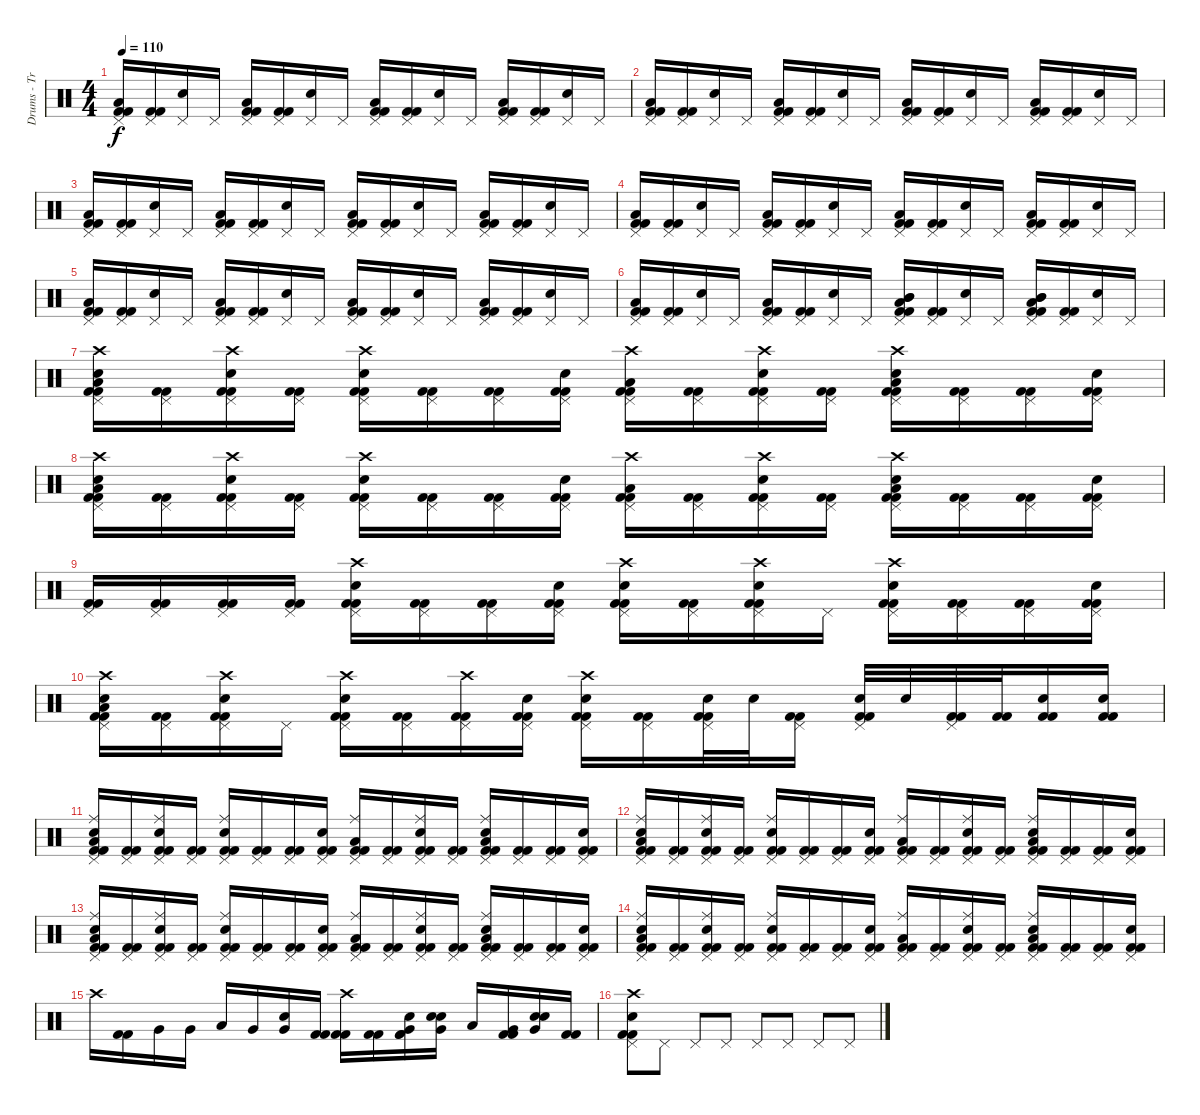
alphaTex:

\track ("Drums - Travis Barker" "Drums - Tr") {instrument percussion}
\staff {score}
\articulation defaults
\ts (4 4)
\tempo 110
\clef neutral
\ks c
("Pedal Hi-Hat (hit)" "Low Tom (hit)" "Kick (hit) 2" "Kick (hit) 2").16{dy f} ("Pedal Hi-Hat (hit)" "Kick (hit) 2" "Kick (hit) 2").16 ("Pedal Hi-Hat (hit)" "Electric Snare (hit)").16 "Pedal Hi-Hat (hit)".16 ("Pedal Hi-Hat (hit)" "Low Tom (hit)" "Kick (hit) 2" "Kick (hit) 2").16 ("Pedal Hi-Hat (hit)" "Kick (hit) 2" "Kick (hit) 2").16 ("Pedal Hi-Hat (hit)" "Electric Snare (hit)").16 "Pedal Hi-Hat (hit)".16 ("Pedal Hi-Hat (hit)" "Low Tom (hit)" "Kick (hit) 2" "Kick (hit) 2").16 ("Pedal Hi-Hat (hit)" "Kick (hit) 2" "Kick (hit) 2").16 ("Pedal Hi-Hat (hit)" "Electric Snare (hit)").16 "Pedal Hi-Hat (hit)".16 ("Pedal Hi-Hat (hit)" "Low Tom (hit)" "Kick (hit) 2" "Kick (hit) 2").16 ("Pedal Hi-Hat (hit)" "Kick (hit) 2" "Kick (hit) 2").16 ("Pedal Hi-Hat (hit)" "Electric Snare (hit)").16 "Pedal Hi-Hat (hit)".16 |
("Pedal Hi-Hat (hit)" "Low Tom (hit)" "Kick (hit) 2" "Kick (hit) 2").16 ("Pedal Hi-Hat (hit)" "Kick (hit) 2" "Kick (hit) 2").16 ("Pedal Hi-Hat (hit)" "Electric Snare (hit)").16 "Pedal Hi-Hat (hit)".16 ("Pedal Hi-Hat (hit)" "Low Tom (hit)" "Kick (hit) 2" "Kick (hit) 2").16 ("Pedal Hi-Hat (hit)" "Kick (hit) 2" "Kick (hit) 2").16 ("Pedal Hi-Hat (hit)" "Electric Snare (hit)").16 "Pedal Hi-Hat (hit)".16 ("Pedal Hi-Hat (hit)" "Low Tom (hit)" "Kick (hit) 2" "Kick (hit) 2").16 ("Pedal Hi-Hat (hit)" "Kick (hit) 2" "Kick (hit) 2").16 ("Pedal Hi-Hat (hit)" "Electric Snare (hit)").16 "Pedal Hi-Hat (hit)".16 ("Pedal Hi-Hat (hit)" "Low Tom (hit)" "Kick (hit) 2" "Kick (hit) 2").16 ("Pedal Hi-Hat (hit)" "Kick (hit) 2" "Kick (hit) 2").16 ("Pedal Hi-Hat (hit)" "Electric Snare (hit)").16 "Pedal Hi-Hat (hit)".16 |
("Pedal Hi-Hat (hit)" "Low Tom (hit)" "Kick (hit) 2" "Kick (hit) 2").16 ("Pedal Hi-Hat (hit)" "Kick (hit) 2" "Kick (hit) 2").16 ("Pedal Hi-Hat (hit)" "Electric Snare (hit)").16 "Pedal Hi-Hat (hit)".16 ("Pedal Hi-Hat (hit)" "Low Tom (hit)" "Kick (hit) 2" "Kick (hit) 2").16 ("Pedal Hi-Hat (hit)" "Kick (hit) 2" "Kick (hit) 2").16 ("Pedal Hi-Hat (hit)" "Electric Snare (hit)").16 "Pedal Hi-Hat (hit)".16 ("Pedal Hi-Hat (hit)" "Low Tom (hit)" "Kick (hit) 2" "Kick (hit) 2").16 ("Pedal Hi-Hat (hit)" "Kick (hit) 2" "Kick (hit) 2").16 ("Pedal Hi-Hat (hit)" "Electric Snare (hit)").16 "Pedal Hi-Hat (hit)".16 ("Pedal Hi-Hat (hit)" "Low Tom (hit)" "Kick (hit) 2" "Kick (hit) 2").16 ("Pedal Hi-Hat (hit)" "Kick (hit) 2" "Kick (hit) 2").16 ("Pedal Hi-Hat (hit)" "Electric Snare (hit)").16 "Pedal Hi-Hat (hit)".16 |
("Pedal Hi-Hat (hit)" "Low Tom (hit)" "Kick (hit) 2" "Kick (hit) 2").16 ("Pedal Hi-Hat (hit)" "Kick (hit) 2" "Kick (hit) 2").16 ("Pedal Hi-Hat (hit)" "Electric Snare (hit)").16 "Pedal Hi-Hat (hit)".16 ("Pedal Hi-Hat (hit)" "Low Tom (hit)" "Kick (hit) 2" "Kick (hit) 2").16 ("Pedal Hi-Hat (hit)" "Kick (hit) 2" "Kick (hit) 2").16 ("Pedal Hi-Hat (hit)" "Electric Snare (hit)").16 "Pedal Hi-Hat (hit)".16 ("Pedal Hi-Hat (hit)" "Low Tom (hit)" "Kick (hit) 2" "Kick (hit) 2").16 ("Pedal Hi-Hat (hit)" "Kick (hit) 2" "Kick (hit) 2").16 ("Pedal Hi-Hat (hit)" "Electric Snare (hit)").16 "Pedal Hi-Hat (hit)".16 ("Pedal Hi-Hat (hit)" "Low Tom (hit)" "Kick (hit) 2" "Kick (hit) 2").16 ("Pedal Hi-Hat (hit)" "Kick (hit) 2" "Kick (hit) 2").16 ("Pedal Hi-Hat (hit)" "Electric Snare (hit)").16 "Pedal Hi-Hat (hit)".16 |
("Pedal Hi-Hat (hit)" "Low Tom (hit)" "Kick (hit) 2" "Kick (hit) 2").16 ("Pedal Hi-Hat (hit)" "Kick (hit) 2" "Kick (hit) 2").16 ("Pedal Hi-Hat (hit)" "Electric Snare (hit)").16 "Pedal Hi-Hat (hit)".16 ("Pedal Hi-Hat (hit)" "Low Tom (hit)" "Kick (hit) 2" "Kick (hit) 2").16 ("Pedal Hi-Hat (hit)" "Kick (hit) 2" "Kick (hit) 2").16 ("Pedal Hi-Hat (hit)" "Electric Snare (hit)").16 "Pedal Hi-Hat (hit)".16 ("Pedal Hi-Hat (hit)" "Low Tom (hit)" "Kick (hit) 2" "Kick (hit) 2").16 ("Pedal Hi-Hat (hit)" "Kick (hit) 2" "Kick (hit) 2").16 ("Pedal Hi-Hat (hit)" "Electric Snare (hit)").16 "Pedal Hi-Hat (hit)".16 ("Pedal Hi-Hat (hit)" "Low Tom (hit)" "Kick (hit) 2" "Kick (hit) 2").16 ("Pedal Hi-Hat (hit)" "Kick (hit) 2" "Kick (hit) 2").16 ("Pedal Hi-Hat (hit)" "Electric Snare (hit)").16 "Pedal Hi-Hat (hit)".16 |
("Pedal Hi-Hat (hit)" "Low Tom (hit)" "Kick (hit) 2" "Kick (hit) 2").16 ("Pedal Hi-Hat (hit)" "Kick (hit) 2" "Kick (hit) 2").16 ("Pedal Hi-Hat (hit)" "Electric Snare (hit)").16 "Pedal Hi-Hat (hit)".16 ("Pedal Hi-Hat (hit)" "Low Tom (hit)" "Kick (hit) 2" "Kick (hit) 2").16 ("Pedal Hi-Hat (hit)" "Kick (hit) 2" "Kick (hit) 2").16 ("Pedal Hi-Hat (hit)" "Electric Snare (hit)").16 "Pedal Hi-Hat (hit)".16 ("Pedal Hi-Hat (hit)" "Mid Tom (hit)" "Low Tom (hit)" "Mid Tom (hit)" "Kick (hit) 2" "Kick (hit) 2").16 ("Pedal Hi-Hat (hit)" "Kick (hit) 2" "Kick (hit) 2").16 ("Pedal Hi-Hat (hit)" "Electric Snare (hit)").16 "Pedal Hi-Hat (hit)".16 ("Pedal Hi-Hat (hit)" "Mid Tom (hit)" "Low Tom (hit)" "Mid Tom (hit)" "Kick (hit) 2" "Kick (hit) 2").16 ("Pedal Hi-Hat (hit)" "Kick (hit) 2" "Kick (hit) 2").16 ("Pedal Hi-Hat (hit)" "Electric Snare (hit)").16 "Pedal Hi-Hat (hit)".16 |
("Pedal Hi-Hat (hit)" "Crash high (hit)" "Low Tom (hit)" "Electric Snare (hit)" "Kick (hit) 2" "Kick (hit) 2").16 ("Pedal Hi-Hat (hit)" "Kick (hit) 2" "Kick (hit) 2").16 ("Pedal Hi-Hat (hit)" "Crash high (hit)" "Electric Snare (hit)" "Kick (hit) 2" "Kick (hit) 2").16 ("Pedal Hi-Hat (hit)" "Kick (hit) 2" "Kick (hit) 2").16 ("Pedal Hi-Hat (hit)" "Crash high (hit)" "Electric Snare (hit)" "Kick (hit) 2" "Kick (hit) 2").16 ("Pedal Hi-Hat (hit)" "Kick (hit) 2" "Kick (hit) 2").16 ("Pedal Hi-Hat (hit)" "Kick (hit) 2" "Kick (hit) 2").16 ("Pedal Hi-Hat (hit)" "Electric Snare (hit)" "Kick (hit) 2" "Kick (hit) 2").16 ("Pedal Hi-Hat (hit)" "Crash high (hit)" "Low Tom (hit)" "Kick (hit) 2" "Kick (hit) 2").16 ("Pedal Hi-Hat (hit)" "Kick (hit) 2" "Kick (hit) 2").16 ("Pedal Hi-Hat (hit)" "Crash high (hit)" "Electric Snare (hit)" "Kick (hit) 2" "Kick (hit) 2").16 ("Pedal Hi-Hat (hit)" "Kick (hit) 2" "Kick (hit) 2").16 ("Pedal Hi-Hat (hit)" "Crash high (hit)" "Low Tom (hit)" "Electric Snare (hit)" "Kick (hit) 2" "Kick (hit) 2").16 ("Pedal Hi-Hat (hit)" "Kick (hit) 2" "Kick (hit) 2").16 ("Pedal Hi-Hat (hit)" "Kick (hit) 2" "Kick (hit) 2").16 ("Pedal Hi-Hat (hit)" "Electric Snare (hit)" "Kick (hit) 2" "Kick (hit) 2").16 |
("Pedal Hi-Hat (hit)" "Crash high (hit)" "Low Tom (hit)" "Electric Snare (hit)" "Kick (hit) 2" "Kick (hit) 2").16 ("Pedal Hi-Hat (hit)" "Kick (hit) 2" "Kick (hit) 2").16 ("Pedal Hi-Hat (hit)" "Crash high (hit)" "Electric Snare (hit)" "Kick (hit) 2" "Kick (hit) 2").16 ("Pedal Hi-Hat (hit)" "Kick (hit) 2" "Kick (hit) 2").16 ("Pedal Hi-Hat (hit)" "Crash high (hit)" "Electric Snare (hit)" "Kick (hit) 2" "Kick (hit) 2").16 ("Pedal Hi-Hat (hit)" "Kick (hit) 2" "Kick (hit) 2").16 ("Pedal Hi-Hat (hit)" "Kick (hit) 2" "Kick (hit) 2").16 ("Pedal Hi-Hat (hit)" "Electric Snare (hit)" "Kick (hit) 2" "Kick (hit) 2").16 ("Pedal Hi-Hat (hit)" "Crash high (hit)" "Low Tom (hit)" "Kick (hit) 2" "Kick (hit) 2").16 ("Pedal Hi-Hat (hit)" "Kick (hit) 2" "Kick (hit) 2").16 ("Pedal Hi-Hat (hit)" "Crash high (hit)" "Electric Snare (hit)" "Kick (hit) 2" "Kick (hit) 2").16 ("Pedal Hi-Hat (hit)" "Kick (hit) 2" "Kick (hit) 2").16 ("Pedal Hi-Hat (hit)" "Crash high (hit)" "Low Tom (hit)" "Electric Snare (hit)" "Kick (hit) 2" "Kick (hit) 2").16 ("Pedal Hi-Hat (hit)" "Kick (hit) 2" "Kick (hit) 2").16 ("Pedal Hi-Hat (hit)" "Kick (hit) 2" "Kick (hit) 2").16 ("Pedal Hi-Hat (hit)" "Electric Snare (hit)" "Kick (hit) 2" "Kick (hit) 2").16 |
("Pedal Hi-Hat (hit)" "Kick (hit) 2" "Kick (hit) 2").16 ("Pedal Hi-Hat (hit)" "Kick (hit) 2" "Kick (hit) 2").16 ("Pedal Hi-Hat (hit)" "Kick (hit) 2" "Kick (hit) 2").16 ("Pedal Hi-Hat (hit)" "Kick (hit) 2" "Kick (hit) 2").16 ("Pedal Hi-Hat (hit)" "Crash high (hit)" "Electric Snare (hit)" "Kick (hit) 2" "Kick (hit) 2").16 ("Pedal Hi-Hat (hit)" "Kick (hit) 2" "Kick (hit) 2").16 ("Pedal Hi-Hat (hit)" "Kick (hit) 2" "Kick (hit) 2").16 ("Pedal Hi-Hat (hit)" "Electric Snare (hit)" "Kick (hit) 2" "Kick (hit) 2").16 ("Pedal Hi-Hat (hit)" "Crash high (hit)" "Electric Snare (hit)" "Kick (hit) 2" "Kick (hit) 2").16 ("Pedal Hi-Hat (hit)" "Kick (hit) 2" "Kick (hit) 2").16 ("Pedal Hi-Hat (hit)" "Crash high (hit)" "Electric Snare (hit)" "Kick (hit) 2" "Kick (hit) 2").16 "Pedal Hi-Hat (hit)".16 ("Pedal Hi-Hat (hit)" "Crash high (hit)" "Electric Snare (hit)" "Kick (hit) 2" "Kick (hit) 2").16 ("Pedal Hi-Hat (hit)" "Kick (hit) 2" "Kick (hit) 2").16 ("Pedal Hi-Hat (hit)" "Kick (hit) 2" "Kick (hit) 2").16 ("Pedal Hi-Hat (hit)" "Electric Snare (hit)" "Kick (hit) 2" "Kick (hit) 2").16 |
("Pedal Hi-Hat (hit)" "Crash high (hit)" "Low Tom (hit)" "Electric Snare (hit)" "Kick (hit) 2" "Kick (hit) 2").16 ("Pedal Hi-Hat (hit)" "Kick (hit) 2" "Kick (hit) 2").16 ("Pedal Hi-Hat (hit)" "Crash high (hit)" "Electric Snare (hit)" "Kick (hit) 2" "Kick (hit) 2").16 "Pedal Hi-Hat (hit)".16 ("Pedal Hi-Hat (hit)" "Crash high (hit)" "Electric Snare (hit)" "Kick (hit) 2" "Kick (hit) 2").16 ("Pedal Hi-Hat (hit)" "Kick (hit) 2" "Kick (hit) 2").16 ("Pedal Hi-Hat (hit)" "Crash high (hit)" "Kick (hit) 2" "Kick (hit) 2").16 ("Pedal Hi-Hat (hit)" "Electric Snare (hit)" "Kick (hit) 2" "Kick (hit) 2").16 ("Pedal Hi-Hat (hit)" "Crash high (hit)" "Electric Snare (hit)" "Kick (hit) 2" "Kick (hit) 2").16 ("Pedal Hi-Hat (hit)" "Kick (hit) 2" "Kick (hit) 2").16 ("Pedal Hi-Hat (hit)" "Electric Snare (hit)" "Kick (hit) 2" "Kick (hit) 2").32 "Electric Snare (hit)".32 ("Pedal Hi-Hat (hit)" "Kick (hit) 2" "Kick (hit) 2").16 ("Pedal Hi-Hat (hit)" "Electric Snare (hit)" "Kick (hit) 2" "Kick (hit) 2").32 "Electric Snare (hit)".32 ("Pedal Hi-Hat (hit)" "Kick (hit) 2" "Kick (hit) 2").32 ("Kick (hit) 2" "Kick (hit) 2").32 ("Electric Snare (hit)" "Kick (hit) 2" "Kick (hit) 2").16 ("Electric Snare (hit)" "Kick (hit) 2" "Kick (hit) 2").16 |
("Pedal Hi-Hat (hit)" "Ride (middle)" "Low Tom (hit)" "Electric Snare (hit)" "Kick (hit) 2" "Kick (hit) 2").16 ("Pedal Hi-Hat (hit)" "Kick (hit) 2" "Kick (hit) 2").16 ("Pedal Hi-Hat (hit)" "Ride (middle)" "Electric Snare (hit)" "Kick (hit) 2" "Kick (hit) 2").16 ("Pedal Hi-Hat (hit)" "Kick (hit) 2" "Kick (hit) 2").16 ("Pedal Hi-Hat (hit)" "Ride (middle)" "Electric Snare (hit)" "Kick (hit) 2" "Kick (hit) 2").16 ("Pedal Hi-Hat (hit)" "Kick (hit) 2" "Kick (hit) 2").16 ("Pedal Hi-Hat (hit)" "Kick (hit) 2" "Kick (hit) 2").16 ("Pedal Hi-Hat (hit)" "Electric Snare (hit)" "Kick (hit) 2" "Kick (hit) 2").16 ("Pedal Hi-Hat (hit)" "Ride (middle)" "Low Tom (hit)" "Kick (hit) 2" "Kick (hit) 2").16 ("Pedal Hi-Hat (hit)" "Kick (hit) 2" "Kick (hit) 2").16 ("Pedal Hi-Hat (hit)" "Ride (middle)" "Electric Snare (hit)" "Kick (hit) 2" "Kick (hit) 2").16 ("Pedal Hi-Hat (hit)" "Kick (hit) 2" "Kick (hit) 2").16 ("Pedal Hi-Hat (hit)" "Ride (middle)" "Low Tom (hit)" "Electric Snare (hit)" "Kick (hit) 2" "Kick (hit) 2").16 ("Pedal Hi-Hat (hit)" "Kick (hit) 2" "Kick (hit) 2").16 ("Pedal Hi-Hat (hit)" "Kick (hit) 2" "Kick (hit) 2").16 ("Pedal Hi-Hat (hit)" "Electric Snare (hit)" "Kick (hit) 2" "Kick (hit) 2").16 |
("Pedal Hi-Hat (hit)" "Ride (middle)" "Low Tom (hit)" "Electric Snare (hit)" "Kick (hit) 2" "Kick (hit) 2").16 ("Pedal Hi-Hat (hit)" "Kick (hit) 2" "Kick (hit) 2").16 ("Pedal Hi-Hat (hit)" "Ride (middle)" "Electric Snare (hit)" "Kick (hit) 2" "Kick (hit) 2").16 ("Pedal Hi-Hat (hit)" "Kick (hit) 2" "Kick (hit) 2").16 ("Pedal Hi-Hat (hit)" "Ride (middle)" "Electric Snare (hit)" "Kick (hit) 2" "Kick (hit) 2").16 ("Pedal Hi-Hat (hit)" "Kick (hit) 2" "Kick (hit) 2").16 ("Pedal Hi-Hat (hit)" "Kick (hit) 2" "Kick (hit) 2").16 ("Pedal Hi-Hat (hit)" "Electric Snare (hit)" "Kick (hit) 2" "Kick (hit) 2").16 ("Pedal Hi-Hat (hit)" "Ride (middle)" "Low Tom (hit)" "Kick (hit) 2" "Kick (hit) 2").16 ("Pedal Hi-Hat (hit)" "Kick (hit) 2" "Kick (hit) 2").16 ("Pedal Hi-Hat (hit)" "Ride (middle)" "Electric Snare (hit)" "Kick (hit) 2" "Kick (hit) 2").16 ("Pedal Hi-Hat (hit)" "Kick (hit) 2" "Kick (hit) 2").16 ("Pedal Hi-Hat (hit)" "Ride (middle)" "Low Tom (hit)" "Electric Snare (hit)" "Kick (hit) 2" "Kick (hit) 2").16 ("Pedal Hi-Hat (hit)" "Kick (hit) 2" "Kick (hit) 2").16 ("Pedal Hi-Hat (hit)" "Kick (hit) 2" "Kick (hit) 2").16 ("Pedal Hi-Hat (hit)" "Electric Snare (hit)" "Kick (hit) 2" "Kick (hit) 2").16 |
("Pedal Hi-Hat (hit)" "Ride (middle)" "Low Tom (hit)" "Electric Snare (hit)" "Kick (hit) 2" "Kick (hit) 2").16 ("Pedal Hi-Hat (hit)" "Kick (hit) 2" "Kick (hit) 2").16 ("Pedal Hi-Hat (hit)" "Ride (middle)" "Electric Snare (hit)" "Kick (hit) 2" "Kick (hit) 2").16 ("Pedal Hi-Hat (hit)" "Kick (hit) 2" "Kick (hit) 2").16 ("Pedal Hi-Hat (hit)" "Ride (middle)" "Electric Snare (hit)" "Kick (hit) 2" "Kick (hit) 2").16 ("Pedal Hi-Hat (hit)" "Kick (hit) 2" "Kick (hit) 2").16 ("Pedal Hi-Hat (hit)" "Kick (hit) 2" "Kick (hit) 2").16 ("Pedal Hi-Hat (hit)" "Electric Snare (hit)" "Kick (hit) 2" "Kick (hit) 2").16 ("Pedal Hi-Hat (hit)" "Ride (middle)" "Low Tom (hit)" "Kick (hit) 2" "Kick (hit) 2").16 ("Pedal Hi-Hat (hit)" "Kick (hit) 2" "Kick (hit) 2").16 ("Pedal Hi-Hat (hit)" "Ride (middle)" "Electric Snare (hit)" "Kick (hit) 2" "Kick (hit) 2").16 ("Pedal Hi-Hat (hit)" "Kick (hit) 2" "Kick (hit) 2").16 ("Pedal Hi-Hat (hit)" "Ride (middle)" "Low Tom (hit)" "Electric Snare (hit)" "Kick (hit) 2" "Kick (hit) 2").16 ("Pedal Hi-Hat (hit)" "Kick (hit) 2" "Kick (hit) 2").16 ("Pedal Hi-Hat (hit)" "Kick (hit) 2" "Kick (hit) 2").16 ("Pedal Hi-Hat (hit)" "Electric Snare (hit)" "Kick (hit) 2" "Kick (hit) 2").16 |
("Pedal Hi-Hat (hit)" "Ride (middle)" "Low Tom (hit)" "Electric Snare (hit)" "Kick (hit) 2" "Kick (hit) 2").16 ("Pedal Hi-Hat (hit)" "Kick (hit) 2" "Kick (hit) 2").16 ("Pedal Hi-Hat (hit)" "Ride (middle)" "Electric Snare (hit)" "Kick (hit) 2" "Kick (hit) 2").16 ("Pedal Hi-Hat (hit)" "Kick (hit) 2" "Kick (hit) 2").16 ("Pedal Hi-Hat (hit)" "Ride (middle)" "Electric Snare (hit)" "Kick (hit) 2" "Kick (hit) 2").16 ("Pedal Hi-Hat (hit)" "Kick (hit) 2" "Kick (hit) 2").16 ("Pedal Hi-Hat (hit)" "Kick (hit) 2" "Kick (hit) 2").16 ("Pedal Hi-Hat (hit)" "Electric Snare (hit)" "Kick (hit) 2" "Kick (hit) 2").16 ("Pedal Hi-Hat (hit)" "Ride (middle)" "Low Tom (hit)" "Kick (hit) 2" "Kick (hit) 2").16 ("Pedal Hi-Hat (hit)" "Kick (hit) 2" "Kick (hit) 2").16 ("Pedal Hi-Hat (hit)" "Ride (middle)" "Electric Snare (hit)" "Kick (hit) 2" "Kick (hit) 2").16 ("Pedal Hi-Hat (hit)" "Kick (hit) 2" "Kick (hit) 2").16 ("Pedal Hi-Hat (hit)" "Ride (middle)" "Low Tom (hit)" "Electric Snare (hit)" "Kick (hit) 2" "Kick (hit) 2").16 ("Pedal Hi-Hat (hit)" "Kick (hit) 2" "Kick (hit) 2").16 ("Pedal Hi-Hat (hit)" "Kick (hit) 2" "Kick (hit) 2").16 ("Pedal Hi-Hat (hit)" "Electric Snare (hit)" "Kick (hit) 2" "Kick (hit) 2").16 |
"Crash high (hit)".16 ("Kick (hit) 2" "Kick (hit) 2").16 "Very Low Tom (hit)".16 "Very Low Tom (hit)".16 "Low Tom (hit)".16 "Very Low Tom (hit)".16 ("Very Low Tom (hit)" "Electric Snare (hit)").16 ("Kick (hit) 2" "Kick (hit) 2").16 ("Crash high (hit)" "Kick (hit) 2" "Kick (hit) 2").16 ("Kick (hit) 2" "Kick (hit) 2").16 ("Very Low Tom (hit)" "Electric Snare (hit)" "Kick (hit) 2" "Kick (hit) 2").16 ("Very Low Tom (hit)" "Electric Snare (hit)" "Electric Snare (hit)").16 "Low Tom (hit)".16 ("Very Low Tom (hit)" "Kick (hit) 2" "Kick (hit) 2").16 ("Very Low Tom (hit)" "Electric Snare (hit)" "Electric Snare (hit)").16 ("Kick (hit) 2" "Kick (hit) 2").16 |
("Pedal Hi-Hat (hit)" "Crash high (hit)" "Electric Snare (hit)" "Kick (hit) 2" "Kick (hit) 2").8 "Pedal Hi-Hat (hit)".8 "Pedal Hi-Hat (hit)".8 "Pedal Hi-Hat (hit)".8 "Pedal Hi-Hat (hit)".8 "Pedal Hi-Hat (hit)".8 "Pedal Hi-Hat (hit)".8 "Pedal Hi-Hat (hit)".8
